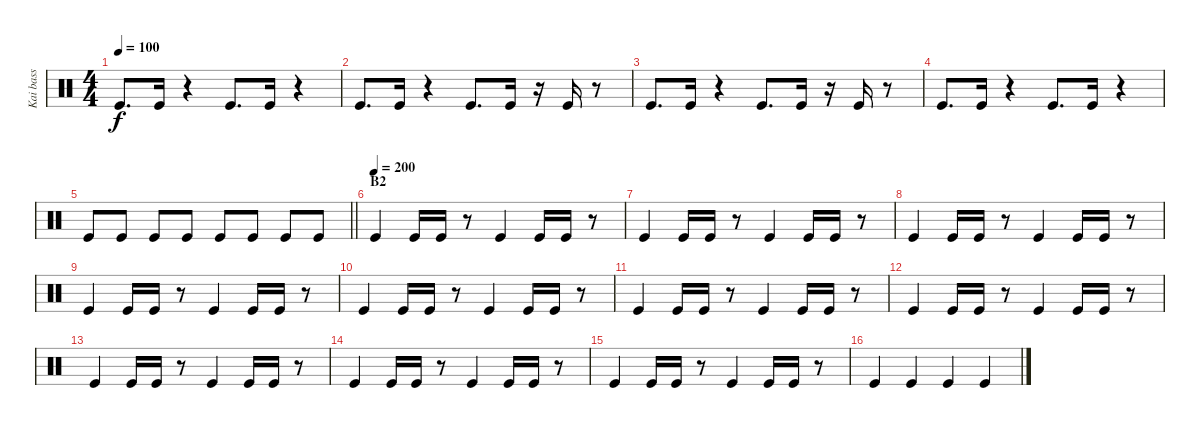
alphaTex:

\track ("Kai bass" "Kai bass") {instrument percussion}
\staff {score}
\articulation defaults
\ts (4 4)
\tempo 100
\clef neutral
\ks c "Kick (hit)".8{d dy f} "Kick (hit)".16
r.4 "Kick (hit)".8{d} "Kick (hit)".16 r.4 |
"Kick (hit)".8{d} "Kick (hit)".16 r.4 "Kick (hit)".8{d} "Kick (hit)".16 r.16 "Kick (hit)".16 r.8 |
"Kick (hit)".8{d} "Kick (hit)".16 r.4 "Kick (hit)".8{d} "Kick (hit)".16 r.16 "Kick (hit)".16 r.8 |
"Kick (hit)".8{d} "Kick (hit)".16 r.4 "Kick (hit)".8{d} "Kick (hit)".16 r.4 |
\barLineRight lightlight "Kick (hit)".8 "Kick (hit)".8 "Kick (hit)".8 "Kick (hit)".8 "Kick (hit)".8 "Kick (hit)".8 "Kick (hit)".8 "Kick (hit)".8
|
\section ("" "B2")
\tempo (200)
"Kick (hit)".4 "Kick (hit)".16 "Kick (hit)".16 r.8 "Kick (hit)".4 "Kick (hit)".16 "Kick (hit)".16 r.8 |
"Kick (hit)".4 "Kick (hit)".16 "Kick (hit)".16 r.8 "Kick (hit)".4 "Kick (hit)".16 "Kick (hit)".16 r.8 |
"Kick (hit)".4 "Kick (hit)".16 "Kick (hit)".16 r.8 "Kick (hit)".4 "Kick (hit)".16 "Kick (hit)".16 r.8 |
"Kick (hit)".4 "Kick (hit)".16 "Kick (hit)".16 r.8 "Kick (hit)".4 "Kick (hit)".16 "Kick (hit)".16 r.8 |
"Kick (hit)".4 "Kick (hit)".16 "Kick (hit)".16 r.8 "Kick (hit)".4 "Kick (hit)".16 "Kick (hit)".16 r.8 |
"Kick (hit)".4 "Kick (hit)".16 "Kick (hit)".16 r.8 "Kick (hit)".4 "Kick (hit)".16 "Kick (hit)".16 r.8 |
"Kick (hit)".4 "Kick (hit)".16 "Kick (hit)".16 r.8 "Kick (hit)".4 "Kick (hit)".16 "Kick (hit)".16 r.8 |
"Kick (hit)".4 "Kick (hit)".16 "Kick (hit)".16 r.8 "Kick (hit)".4 "Kick (hit)".16 "Kick (hit)".16 r.8 |
"Kick (hit)".4 "Kick (hit)".16 "Kick (hit)".16 r.8 "Kick (hit)".4 "Kick (hit)".16 "Kick (hit)".16 r.8 |
"Kick (hit)".4 "Kick (hit)".16 "Kick (hit)".16 r.8 "Kick (hit)".4 "Kick (hit)".16 "Kick (hit)".16 r.8 |
"Kick (hit)".4 "Kick (hit)".4 "Kick (hit)".4 "Kick (hit)".4
